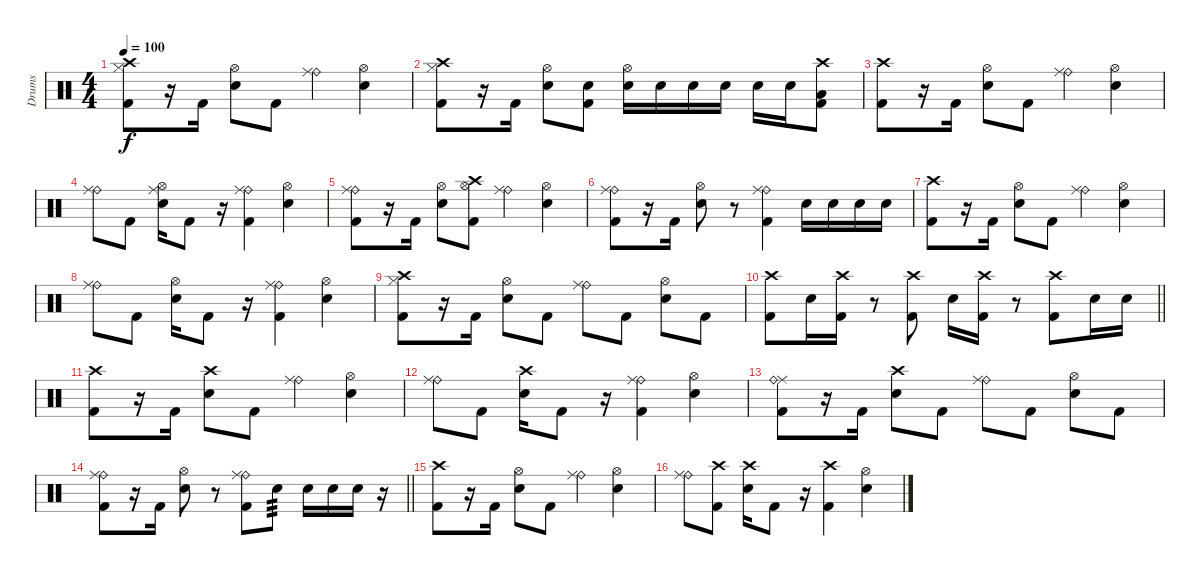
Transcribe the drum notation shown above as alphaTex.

\track ("Drums" "Drums") {instrument percussion}
\staff {score}
\articulation defaults
\ts (4 4)
\tempo 100
\clef neutral
\ks c
("Crash high (hit)" "Hi-Hat (closed)" "Kick (hit) 2").8{dy f} r.16 "Kick (hit) 2".16 ("Hi-Hat (open)" "Electric Snare (hit)").8 "Kick (hit) 2".8 ("Ride (bell)" "Ride (middle)").4 ("Hi-Hat (open)" "Electric Snare (hit)").4 |
("Crash high (hit)" "Hi-Hat (closed)" "Kick (hit) 2").8 r.16 "Kick (hit) 2".16 ("Hi-Hat (open)" "Electric Snare (hit)").8 ("Electric Snare (hit)" "Kick (hit) 2").8 ("Hi-Hat (open)" "Electric Snare (hit)").16 "Electric Snare (hit)".16 "Electric Snare (hit)".16 "Electric Snare (hit)".16 "Snare (hit) 2".16 "Snare (hit) 2".16 ("Crash high (hit)" "Low Tom (hit)" "Kick (hit) 2").8 |
("Crash high (hit)" "Kick (hit) 2").8 r.16 "Kick (hit) 2".16 ("Hi-Hat (open)" "Electric Snare (hit)").8 "Kick (hit) 2".8 ("Ride (bell)" "Ride (middle)").4 ("Hi-Hat (open)" "Electric Snare (hit)").4 |
("Ride (bell)" "Ride (middle)").8 "Kick (hit) 2".8 ("Hi-Hat (open)" "Ride (middle)" "Electric Snare (hit)").16 "Kick (hit) 2".8 r.16 ("Ride (bell)" "Ride (middle)" "Kick (hit) 2").4 ("Hi-Hat (open)" "Electric Snare (hit)").4 |
("Ride (bell)" "Ride (middle)" "Kick (hit) 2").8 r.16 "Kick (hit) 2".16 ("Hi-Hat (open)" "Electric Snare (hit)").8 ("Crash high (hit)" "Hi-Hat (open)" "Kick (hit) 2").8 ("Ride (bell)" "Ride (middle)").4 ("Hi-Hat (open)" "Electric Snare (hit)").4 |
("Ride (bell)" "Ride (middle)" "Kick (hit) 2").8 r.16 "Kick (hit) 2".16 ("Hi-Hat (open)" "Electric Snare (hit)").8 r.8 ("Ride (bell)" "Ride (middle)" "Kick (hit) 2").4 "Electric Snare (hit)".16 "Electric Snare (hit)".16 "Electric Snare (hit)".16 "Snare (hit) 2".16 |
("Crash high (hit)" "Kick (hit) 2").8 r.16 "Kick (hit) 2".16 ("Hi-Hat (open)" "Electric Snare (hit)").8 "Kick (hit) 2".8 ("Ride (bell)" "Ride (middle)").4 ("Hi-Hat (open)" "Electric Snare (hit)").4 |
("Ride (bell)" "Ride (middle)").8 "Kick (hit) 2".8 ("Hi-Hat (open)" "Electric Snare (hit)").16 "Kick (hit) 2".8 r.16 ("Ride (bell)" "Ride (middle)" "Kick (hit) 2").4 ("Hi-Hat (open)" "Electric Snare (hit)").4 |
("Crash high (hit)" "Hi-Hat (closed)" "Kick (hit) 2").8 r.16 "Kick (hit) 2".16 ("Hi-Hat (open)" "Electric Snare (hit)").8 "Kick (hit) 2".8 ("Ride (bell)" "Ride (middle)").8 "Kick (hit) 2".8 ("Hi-Hat (open)" "Electric Snare (hit)").8 "Kick (hit) 2".8 |
\barLineRight lightlight
("Crash high (hit)" "Kick (hit) 2").8 "Electric Snare (hit)".16 ("Crash high (hit)" "Kick (hit) 2").16 r.8 ("Crash high (hit)" "Kick (hit) 2").8 "Electric Snare (hit)".16 ("Crash high (hit)" "Kick (hit) 2").16 r.8 ("Crash high (hit)" "Kick (hit) 2").8 "Electric Snare (hit)".16 "Electric Snare (hit)".16 |
("Crash high (hit)" "Kick (hit) 2").8 r.16 "Kick (hit) 2".16 ("Crash high (hit)" "Electric Snare (hit)").8 "Kick (hit) 2".8 ("Ride (bell)" "Ride (middle)").4 ("Hi-Hat (open)" "Electric Snare (hit)").4 |
("Ride (bell)" "Ride (middle)").8 "Kick (hit) 2".8 ("Crash high (hit)" "Electric Snare (hit)").16 "Kick (hit) 2".8 r.16 ("Ride (bell)" "Ride (middle)" "Kick (hit) 2").4 ("Hi-Hat (open)" "Electric Snare (hit)").4 |
("Ride (middle)" "Ride (bell)" "Kick (hit) 2").8 r.16 "Kick (hit) 2".16 ("Crash high (hit)" "Electric Snare (hit)").8 "Kick (hit) 2".8 ("Ride (bell)" "Ride (middle)").8 "Kick (hit) 2".8 ("Hi-Hat (open)" "Electric Snare (hit)").8 "Kick (hit) 2".8 |
\barLineRight lightlight
("Ride (bell)" "Ride (middle)" "Kick (hit) 2").8 r.16 "Kick (hit) 2".16 ("Hi-Hat (open)" "Electric Snare (hit)").8 r.8 ("Ride (bell)" "Ride (middle)" "Kick (hit) 2").8 "Electric Snare (hit)".8{tp 3} "Electric Snare (hit)".16 "Electric Snare (hit)".16 "Electric Snare (hit)".16 r.16 |
("Crash high (hit)" "Kick (hit) 2").8 r.16 "Kick (hit) 2".16 ("Hi-Hat (open)" "Electric Snare (hit)").8 "Kick (hit) 2".8 ("Ride (bell)" "Ride (middle)").4 ("Hi-Hat (open)" "Electric Snare (hit)").4 |
("Ride (bell)" "Ride (middle)").8 ("Crash high (hit)" "Kick (hit) 2").8 ("Crash high (hit)" "Electric Snare (hit)").16 "Kick (hit) 2".8 r.16 ("Crash high (hit)" "Kick (hit) 2").4 ("Hi-Hat (open)" "Electric Snare (hit)").4
